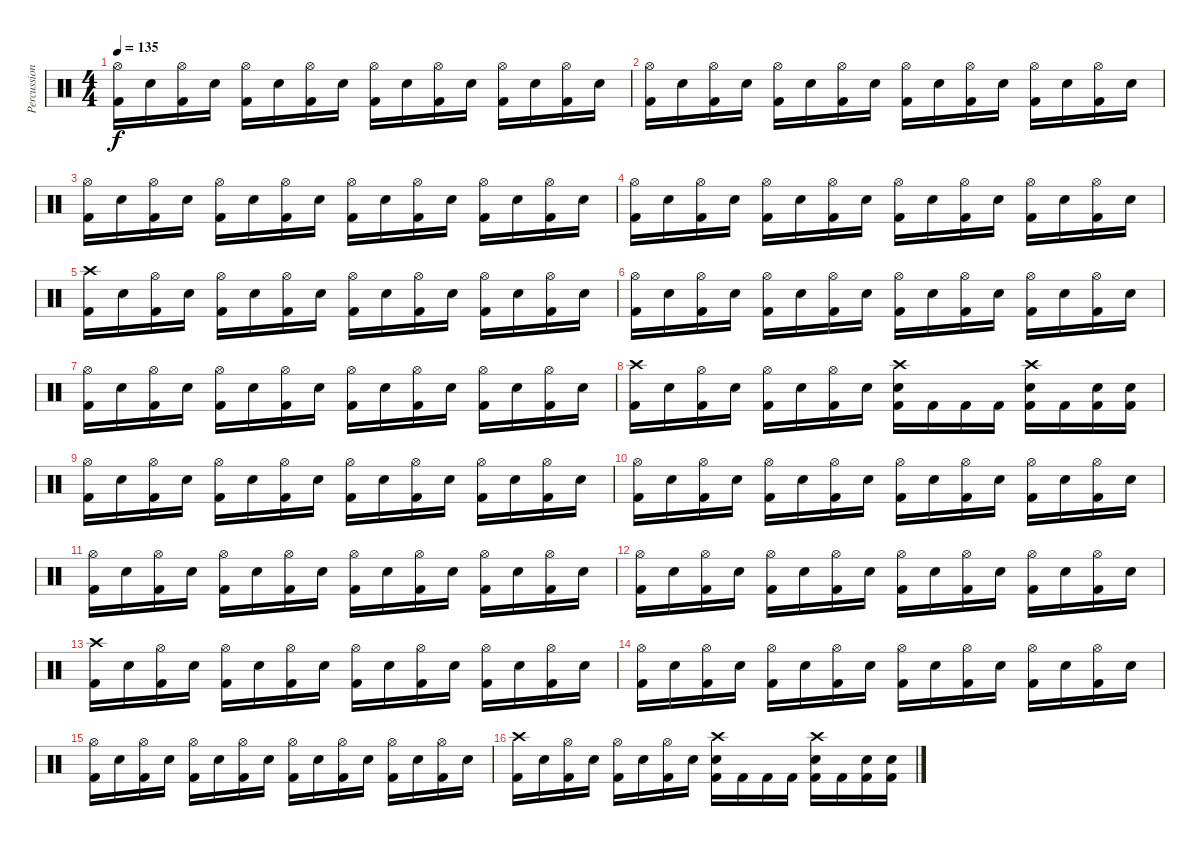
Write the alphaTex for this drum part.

\track ("Percussions" "Percussion") {instrument percussion}
\staff {score}
\articulation defaults
\ts (4 4)
\tempo 135
\clef neutral
\ks c
("Hi-Hat (open)" "Kick (hit) 2").16{dy f} "Electric Snare (hit)".16 ("Hi-Hat (open)" "Kick (hit) 2").16 "Electric Snare (hit)".16 ("Hi-Hat (open)" "Kick (hit) 2").16 "Electric Snare (hit)".16 ("Hi-Hat (open)" "Kick (hit) 2").16 "Electric Snare (hit)".16 ("Hi-Hat (open)" "Kick (hit) 2").16 "Electric Snare (hit)".16 ("Hi-Hat (open)" "Kick (hit) 2").16 "Electric Snare (hit)".16 ("Hi-Hat (open)" "Kick (hit) 2").16 "Electric Snare (hit)".16 ("Hi-Hat (open)" "Kick (hit) 2").16 "Electric Snare (hit)".16 |
("Hi-Hat (open)" "Kick (hit) 2").16 "Electric Snare (hit)".16 ("Hi-Hat (open)" "Kick (hit) 2").16 "Electric Snare (hit)".16 ("Hi-Hat (open)" "Kick (hit) 2").16 "Electric Snare (hit)".16 ("Hi-Hat (open)" "Kick (hit) 2").16 "Electric Snare (hit)".16 ("Hi-Hat (open)" "Kick (hit) 2").16 "Electric Snare (hit)".16 ("Hi-Hat (open)" "Kick (hit) 2").16 "Electric Snare (hit)".16 ("Hi-Hat (open)" "Kick (hit) 2").16 "Electric Snare (hit)".16 ("Hi-Hat (open)" "Kick (hit) 2").16 "Electric Snare (hit)".16 |
("Hi-Hat (open)" "Kick (hit) 2").16 "Electric Snare (hit)".16 ("Hi-Hat (open)" "Kick (hit) 2").16 "Electric Snare (hit)".16 ("Hi-Hat (open)" "Kick (hit) 2").16 "Electric Snare (hit)".16 ("Hi-Hat (open)" "Kick (hit) 2").16 "Electric Snare (hit)".16 ("Hi-Hat (open)" "Kick (hit) 2").16 "Electric Snare (hit)".16 ("Hi-Hat (open)" "Kick (hit) 2").16 "Electric Snare (hit)".16 ("Hi-Hat (open)" "Kick (hit) 2").16 "Electric Snare (hit)".16 ("Hi-Hat (open)" "Kick (hit) 2").16 "Electric Snare (hit)".16 |
("Hi-Hat (open)" "Kick (hit) 2").16 "Electric Snare (hit)".16 ("Hi-Hat (open)" "Kick (hit) 2").16 "Electric Snare (hit)".16 ("Hi-Hat (open)" "Kick (hit) 2").16 "Electric Snare (hit)".16 ("Hi-Hat (open)" "Kick (hit) 2").16 "Electric Snare (hit)".16 ("Hi-Hat (open)" "Kick (hit) 2").16 "Electric Snare (hit)".16 ("Hi-Hat (open)" "Kick (hit) 2").16 "Electric Snare (hit)".16 ("Hi-Hat (open)" "Kick (hit) 2").16 "Electric Snare (hit)".16 ("Hi-Hat (open)" "Kick (hit) 2").16 "Electric Snare (hit)".16 |
("Crash high (hit)" "Kick (hit) 2").16 "Electric Snare (hit)".16 ("Hi-Hat (open)" "Kick (hit) 2").16 "Electric Snare (hit)".16 ("Hi-Hat (open)" "Kick (hit) 2").16 "Electric Snare (hit)".16 ("Hi-Hat (open)" "Kick (hit) 2").16 "Electric Snare (hit)".16 ("Hi-Hat (open)" "Kick (hit) 2").16 "Electric Snare (hit)".16 ("Hi-Hat (open)" "Kick (hit) 2").16 "Electric Snare (hit)".16 ("Hi-Hat (open)" "Kick (hit) 2").16 "Electric Snare (hit)".16 ("Hi-Hat (open)" "Kick (hit) 2").16 "Electric Snare (hit)".16 |
("Hi-Hat (open)" "Kick (hit) 2").16 "Electric Snare (hit)".16 ("Hi-Hat (open)" "Kick (hit) 2").16 "Electric Snare (hit)".16 ("Hi-Hat (open)" "Kick (hit) 2").16 "Electric Snare (hit)".16 ("Hi-Hat (open)" "Kick (hit) 2").16 "Electric Snare (hit)".16 ("Hi-Hat (open)" "Kick (hit) 2").16 "Electric Snare (hit)".16 ("Hi-Hat (open)" "Kick (hit) 2").16 "Electric Snare (hit)".16 ("Hi-Hat (open)" "Kick (hit) 2").16 "Electric Snare (hit)".16 ("Hi-Hat (open)" "Kick (hit) 2").16 "Electric Snare (hit)".16 |
("Hi-Hat (open)" "Kick (hit) 2").16 "Electric Snare (hit)".16 ("Hi-Hat (open)" "Kick (hit) 2").16 "Electric Snare (hit)".16 ("Hi-Hat (open)" "Kick (hit) 2").16 "Electric Snare (hit)".16 ("Hi-Hat (open)" "Kick (hit) 2").16 "Electric Snare (hit)".16 ("Hi-Hat (open)" "Kick (hit) 2").16 "Electric Snare (hit)".16 ("Hi-Hat (open)" "Kick (hit) 2").16 "Electric Snare (hit)".16 ("Hi-Hat (open)" "Kick (hit) 2").16 "Electric Snare (hit)".16 ("Hi-Hat (open)" "Kick (hit) 2").16 "Electric Snare (hit)".16 |
("Crash high (hit)" "Kick (hit) 2").16 "Electric Snare (hit)".16 ("Hi-Hat (open)" "Kick (hit) 2").16 "Electric Snare (hit)".16 ("Hi-Hat (open)" "Kick (hit) 2").16 "Electric Snare (hit)".16 ("Hi-Hat (open)" "Kick (hit) 2").16 "Electric Snare (hit)".16 ("Crash high (hit)" "Electric Snare (hit)" "Kick (hit) 2").16 "Kick (hit) 2".16 "Kick (hit) 2".16 "Kick (hit) 2".16 ("Crash high (hit)" "Electric Snare (hit)" "Kick (hit) 2").16 "Kick (hit) 2".16 ("Electric Snare (hit)" "Kick (hit) 2").16 ("Electric Snare (hit)" "Kick (hit) 2").16 |
("Hi-Hat (open)" "Kick (hit) 2").16 "Electric Snare (hit)".16 ("Hi-Hat (open)" "Kick (hit) 2").16 "Electric Snare (hit)".16 ("Hi-Hat (open)" "Kick (hit) 2").16 "Electric Snare (hit)".16 ("Hi-Hat (open)" "Kick (hit) 2").16 "Electric Snare (hit)".16 ("Hi-Hat (open)" "Kick (hit) 2").16 "Electric Snare (hit)".16 ("Hi-Hat (open)" "Kick (hit) 2").16 "Electric Snare (hit)".16 ("Hi-Hat (open)" "Kick (hit) 2").16 "Electric Snare (hit)".16 ("Hi-Hat (open)" "Kick (hit) 2").16 "Electric Snare (hit)".16 |
("Hi-Hat (open)" "Kick (hit) 2").16 "Electric Snare (hit)".16 ("Hi-Hat (open)" "Kick (hit) 2").16 "Electric Snare (hit)".16 ("Hi-Hat (open)" "Kick (hit) 2").16 "Electric Snare (hit)".16 ("Hi-Hat (open)" "Kick (hit) 2").16 "Electric Snare (hit)".16 ("Hi-Hat (open)" "Kick (hit) 2").16 "Electric Snare (hit)".16 ("Hi-Hat (open)" "Kick (hit) 2").16 "Electric Snare (hit)".16 ("Hi-Hat (open)" "Kick (hit) 2").16 "Electric Snare (hit)".16 ("Hi-Hat (open)" "Kick (hit) 2").16 "Electric Snare (hit)".16 |
("Hi-Hat (open)" "Kick (hit) 2").16 "Electric Snare (hit)".16 ("Hi-Hat (open)" "Kick (hit) 2").16 "Electric Snare (hit)".16 ("Hi-Hat (open)" "Kick (hit) 2").16 "Electric Snare (hit)".16 ("Hi-Hat (open)" "Kick (hit) 2").16 "Electric Snare (hit)".16 ("Hi-Hat (open)" "Kick (hit) 2").16 "Electric Snare (hit)".16 ("Hi-Hat (open)" "Kick (hit) 2").16 "Electric Snare (hit)".16 ("Hi-Hat (open)" "Kick (hit) 2").16 "Electric Snare (hit)".16 ("Hi-Hat (open)" "Kick (hit) 2").16 "Electric Snare (hit)".16 |
("Hi-Hat (open)" "Kick (hit) 2").16 "Electric Snare (hit)".16 ("Hi-Hat (open)" "Kick (hit) 2").16 "Electric Snare (hit)".16 ("Hi-Hat (open)" "Kick (hit) 2").16 "Electric Snare (hit)".16 ("Hi-Hat (open)" "Kick (hit) 2").16 "Electric Snare (hit)".16 ("Hi-Hat (open)" "Kick (hit) 2").16 "Electric Snare (hit)".16 ("Hi-Hat (open)" "Kick (hit) 2").16 "Electric Snare (hit)".16 ("Hi-Hat (open)" "Kick (hit) 2").16 "Electric Snare (hit)".16 ("Hi-Hat (open)" "Kick (hit) 2").16 "Electric Snare (hit)".16 |
("Crash high (hit)" "Kick (hit) 2").16 "Electric Snare (hit)".16 ("Hi-Hat (open)" "Kick (hit) 2").16 "Electric Snare (hit)".16 ("Hi-Hat (open)" "Kick (hit) 2").16 "Electric Snare (hit)".16 ("Hi-Hat (open)" "Kick (hit) 2").16 "Electric Snare (hit)".16 ("Hi-Hat (open)" "Kick (hit) 2").16 "Electric Snare (hit)".16 ("Hi-Hat (open)" "Kick (hit) 2").16 "Electric Snare (hit)".16 ("Hi-Hat (open)" "Kick (hit) 2").16 "Electric Snare (hit)".16 ("Hi-Hat (open)" "Kick (hit) 2").16 "Electric Snare (hit)".16 |
("Hi-Hat (open)" "Kick (hit) 2").16 "Electric Snare (hit)".16 ("Hi-Hat (open)" "Kick (hit) 2").16 "Electric Snare (hit)".16 ("Hi-Hat (open)" "Kick (hit) 2").16 "Electric Snare (hit)".16 ("Hi-Hat (open)" "Kick (hit) 2").16 "Electric Snare (hit)".16 ("Hi-Hat (open)" "Kick (hit) 2").16 "Electric Snare (hit)".16 ("Hi-Hat (open)" "Kick (hit) 2").16 "Electric Snare (hit)".16 ("Hi-Hat (open)" "Kick (hit) 2").16 "Electric Snare (hit)".16 ("Hi-Hat (open)" "Kick (hit) 2").16 "Electric Snare (hit)".16 |
("Hi-Hat (open)" "Kick (hit) 2").16 "Electric Snare (hit)".16 ("Hi-Hat (open)" "Kick (hit) 2").16 "Electric Snare (hit)".16 ("Hi-Hat (open)" "Kick (hit) 2").16 "Electric Snare (hit)".16 ("Hi-Hat (open)" "Kick (hit) 2").16 "Electric Snare (hit)".16 ("Hi-Hat (open)" "Kick (hit) 2").16 "Electric Snare (hit)".16 ("Hi-Hat (open)" "Kick (hit) 2").16 "Electric Snare (hit)".16 ("Hi-Hat (open)" "Kick (hit) 2").16 "Electric Snare (hit)".16 ("Hi-Hat (open)" "Kick (hit) 2").16 "Electric Snare (hit)".16 |
("Crash high (hit)" "Kick (hit) 2").16 "Electric Snare (hit)".16 ("Hi-Hat (open)" "Kick (hit) 2").16 "Electric Snare (hit)".16 ("Hi-Hat (open)" "Kick (hit) 2").16 "Electric Snare (hit)".16 ("Hi-Hat (open)" "Kick (hit) 2").16 "Electric Snare (hit)".16 ("Crash high (hit)" "Electric Snare (hit)" "Kick (hit) 2").16 "Kick (hit) 2".16 "Kick (hit) 2".16 "Kick (hit) 2".16 ("Crash high (hit)" "Electric Snare (hit)" "Kick (hit) 2").16 "Kick (hit) 2".16 ("Electric Snare (hit)" "Kick (hit) 2").16 ("Electric Snare (hit)" "Kick (hit) 2").16
